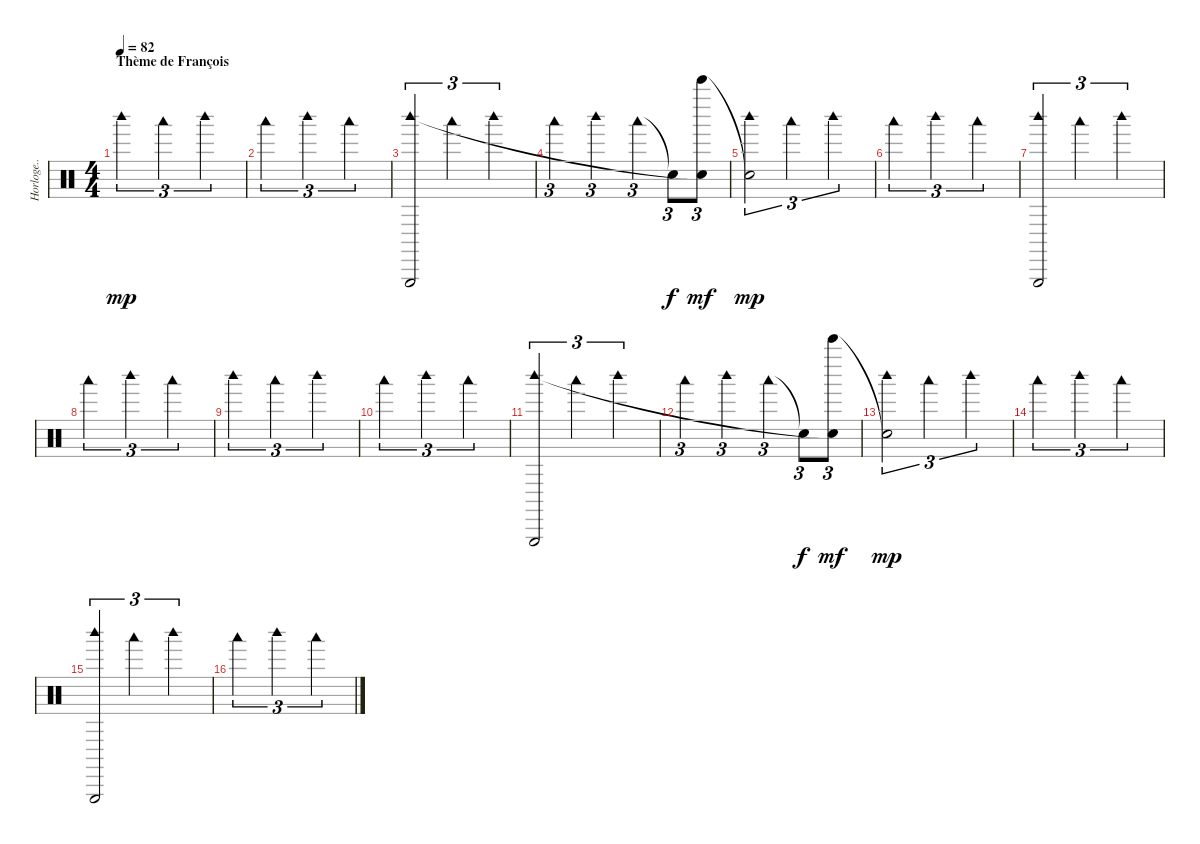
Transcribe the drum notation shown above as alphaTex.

\track ("Horloge.." "Horloge..") {instrument percussion}
\staff {score}
\articulation defaults
\ts (4 4)
\section ("" "Thème de François")
\tempo 82
\clef neutral
\ks c "Woodblock high (hit)".2{tu (3 2) dy mp} "Woodblock low (hit)".2{tu (3 2)} "Woodblock high (hit)".2{tu (3 2)}
|
"Woodblock low (hit)".2{tu (3 2)} "Woodblock high (hit)".2{tu (3 2)} "Woodblock low (hit)".2{tu (3 2)} |
("Triangle (hit)" "Woodblock high (hit)").2{tu (3 2)} "Woodblock low (hit)".2{tu (3 2)} "Woodblock high (hit)".2{tu (3 2)} |
"Woodblock low (hit)".2{tu (3 2)} "Woodblock high (hit)".2{tu (3 2)} "Woodblock low (hit)".4{tu (3 2)} "Snare (hit)"{t}.8{tu (3 2) dy f} ("Bell Tree (hit)" "Snare (hit)"{t}).8{tu (3 2) dy mf} |
("Snare (hit)"{t} "Woodblock high (hit)").2{tu (3 2) dy mp} "Woodblock low (hit)".2{tu (3 2)} "Woodblock high (hit)".2{tu (3 2)} |
"Woodblock low (hit)".2{tu (3 2)} "Woodblock high (hit)".2{tu (3 2)} "Woodblock low (hit)".2{tu (3 2)} |
("Triangle (hit)" "Woodblock high (hit)").2{tu (3 2)} "Woodblock low (hit)".2{tu (3 2)} "Woodblock high (hit)".2{tu (3 2)} |
"Woodblock low (hit)".2{tu (3 2)} "Woodblock high (hit)".2{tu (3 2)} "Woodblock low (hit)".2{tu (3 2)} |
"Woodblock high (hit)".2{tu (3 2)} "Woodblock low (hit)".2{tu (3 2)} "Woodblock high (hit)".2{tu (3 2)} |
"Woodblock low (hit)".2{tu (3 2)} "Woodblock high (hit)".2{tu (3 2)} "Woodblock low (hit)".2{tu (3 2)} |
("Triangle (hit)" "Woodblock high (hit)").2{tu (3 2)} "Woodblock low (hit)".2{tu (3 2)} "Woodblock high (hit)".2{tu (3 2)} |
"Woodblock low (hit)".2{tu (3 2)} "Woodblock high (hit)".2{tu (3 2)} "Woodblock low (hit)".4{tu (3 2)} "Snare (hit)"{t}.8{tu (3 2) dy f} ("Bell Tree (hit)" "Snare (hit)"{t}).8{tu (3 2) dy mf} |
("Snare (hit)"{t} "Woodblock high (hit)").2{tu (3 2) dy mp} "Woodblock low (hit)".2{tu (3 2)} "Woodblock high (hit)".2{tu (3 2)} |
"Woodblock low (hit)".2{tu (3 2)} "Woodblock high (hit)".2{tu (3 2)} "Woodblock low (hit)".2{tu (3 2)} |
("Triangle (hit)" "Woodblock high (hit)").2{tu (3 2)} "Woodblock low (hit)".2{tu (3 2)} "Woodblock high (hit)".2{tu (3 2)} |
"Woodblock low (hit)".2{tu (3 2)} "Woodblock high (hit)".2{tu (3 2)} "Woodblock low (hit)".2{tu (3 2)}
